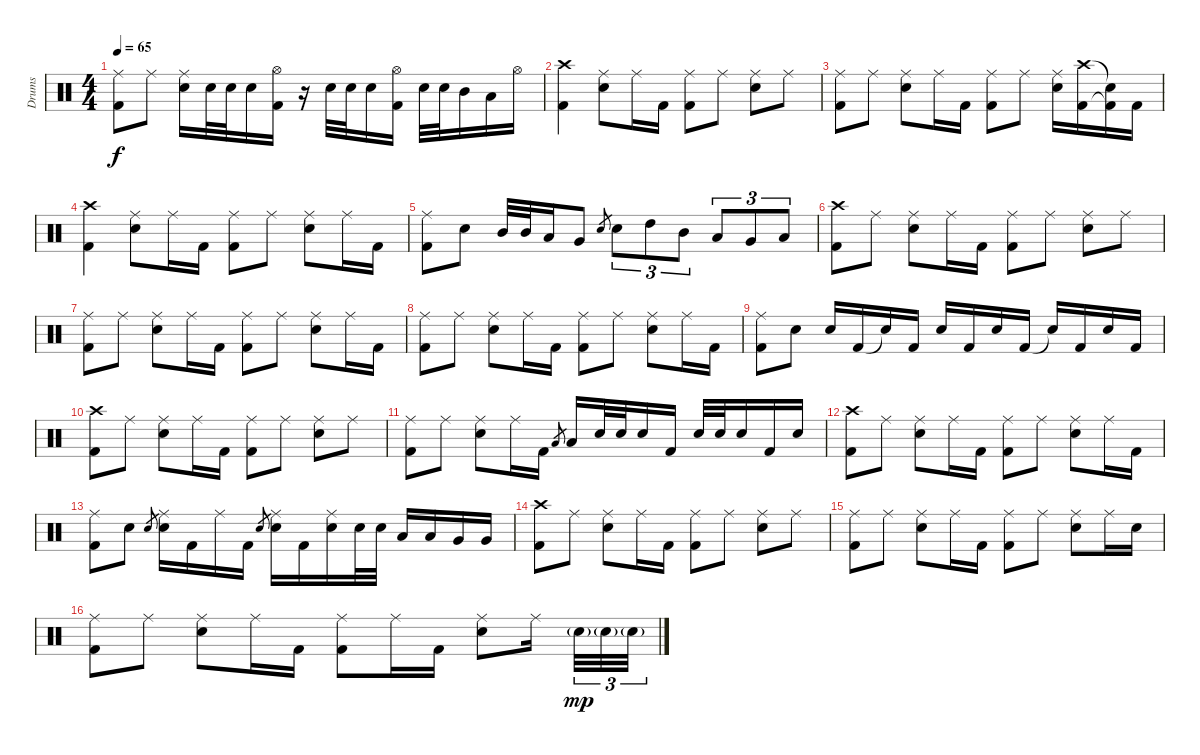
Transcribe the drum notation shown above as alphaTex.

\track ("Drums" "Drums") {instrument percussion}
\staff {score}
\articulation defaults
\ts (4 4)
\tempo 65
\clef neutral
\ks c
("Ride (middle)" "Kick (hit) 2").8{dy f} "Ride (middle)".8 ("Ride (middle)" "Electric Snare (hit)").16 "Electric Snare (hit)".32 "Electric Snare (hit)".32 "Electric Snare (hit)".16 ("Hi-Hat (open)" "Kick (hit) 2").16 r.16 "Electric Snare (hit)".32 "Electric Snare (hit)".32 "Electric Snare (hit)".16 ("Hi-Hat (open)" "Kick (hit) 2").16 "Electric Snare (hit)".32 "Electric Snare (hit)".32 "Mid Tom (hit)".16 "Low Tom (hit)".16 "Hi-Hat (open)".16 |
("Crash high (hit)" "Kick (hit) 2").4 ("Ride (middle)" "Electric Snare (hit)").8 "Ride (middle)".16 "Kick (hit) 2".16 ("Ride (middle)" "Kick (hit) 2").8 "Ride (middle)".8 ("Ride (middle)" "Electric Snare (hit)").8 "Ride (middle)".8 |
("Ride (middle)" "Kick (hit) 2").8 "Ride (middle)".8 ("Ride (middle)" "Electric Snare (hit)").8 "Ride (middle)".16 "Kick (hit) 2".16 ("Ride (middle)" "Kick (hit) 2").8 "Ride (middle)".8 ("Ride (middle)" "Electric Snare (hit)").16 ("Crash high (hit)" "Kick (hit) 2").16 ("Snare (hit)"{t} "Kick (hit) 2"{t}).16 "Kick (hit) 2".16 |
("Crash high (hit)" "Kick (hit) 2").4 ("Ride (middle)" "Electric Snare (hit)").8 "Ride (middle)".16 "Kick (hit) 2".16 ("Ride (middle)" "Kick (hit) 2").8 "Ride (middle)".8 ("Ride (middle)" "Electric Snare (hit)").8 "Ride (middle)".16 "Kick (hit) 2".16 |
("Ride (middle)" "Kick (hit) 2").8 "Electric Snare (hit)".8 "Mid Tom (hit)".32 "Mid Tom (hit)".32 "Low Tom (hit)".16 "Very Low Tom (hit)".8 "Electric Snare (hit)".8{gr} "Electric Snare (hit)".8{tu (3 2)} "High Tom (hit)".8{tu (3 2)} "Mid Tom (hit)".8{tu (3 2)} "Low Tom (hit)".8{tu (3 2)} "Very Low Tom (hit)".8{tu (3 2)} "Low Floor Tom (hit)".8{tu (3 2)} |
("Crash high (hit)" "Kick (hit) 2").8 "Ride (middle)".8 ("Ride (middle)" "Electric Snare (hit)").8 "Ride (middle)".16 "Kick (hit) 2".16 ("Ride (middle)" "Kick (hit) 2").8 "Ride (middle)".8 ("Ride (middle)" "Electric Snare (hit)").8 "Ride (middle)".8 |
("Ride (middle)" "Kick (hit) 2").8 "Ride (middle)".8 ("Ride (middle)" "Electric Snare (hit)").8 "Ride (middle)".16 "Kick (hit) 2".16 ("Ride (middle)" "Kick (hit) 2").8 "Ride (middle)".8 ("Ride (middle)" "Electric Snare (hit)").8 "Ride (middle)".16 "Kick (hit) 2".16 |
("Ride (middle)" "Kick (hit) 2").8 "Ride (middle)".8 ("Ride (middle)" "Electric Snare (hit)").8 "Ride (middle)".16 "Kick (hit) 2".16 ("Ride (middle)" "Kick (hit) 2").8 "Ride (middle)".8 ("Ride (middle)" "Electric Snare (hit)").8 "Ride (middle)".16 "Kick (hit) 2".16 |
("Ride (middle)" "Kick (hit) 2").8 "Electric Snare (hit)".8 "Electric Snare (hit)".16 "Kick (hit) 2".16 "Snare (hit)"{t}.16 "Kick (hit) 2".16 "Electric Snare (hit)".16 "Kick (hit) 2".16 "Electric Snare (hit)".16 "Kick (hit) 2".16 "Snare (hit)"{t}.16 "Kick (hit) 2".16 "Electric Snare (hit)".16 "Kick (hit) 2".16 |
("Crash high (hit)" "Kick (hit) 2").8 "Ride (middle)".8 ("Ride (middle)" "Electric Snare (hit)").8 "Ride (middle)".16 "Kick (hit) 2".16 ("Ride (middle)" "Kick (hit) 2").8 "Ride (middle)".8 ("Ride (middle)" "Electric Snare (hit)").8 "Ride (middle)".8 |
("Ride (middle)" "Kick (hit) 2").8 "Ride (middle)".8 ("Ride (middle)" "Electric Snare (hit)").8 "Ride (middle)".16 "Kick (hit) 2".16 "Low Tom (hit)".8{gr} "Low Tom (hit)".16 "Electric Snare (hit)".32 "Electric Snare (hit)".32 "Electric Snare (hit)".16 "Kick (hit) 2".16 "Electric Snare (hit)".32 "Electric Snare (hit)".32 "Electric Snare (hit)".16 "Kick (hit) 2".16 "Electric Snare (hit)".16 |
("Crash high (hit)" "Kick (hit) 2").8 "Ride (middle)".8 ("Ride (middle)" "Electric Snare (hit)").8 "Ride (middle)".16 "Kick (hit) 2".16 ("Ride (middle)" "Kick (hit) 2").8 "Ride (middle)".8 ("Ride (middle)" "Electric Snare (hit)").8 "Ride (middle)".16 "Kick (hit) 2".16 |
("Ride (middle)" "Kick (hit) 2").8 "Electric Snare (hit)".8 "Electric Snare (hit)".8{gr} ("Ride (middle)" "Electric Snare (hit)").16 "Kick (hit) 2".16 "Ride (middle)".16 "Kick (hit) 2".16 "Electric Snare (hit)".8{gr} ("Ride (middle)" "Electric Snare (hit)").16 "Kick (hit) 2".16 ("Ride (middle)" "Electric Snare (hit)").16 "Electric Snare (hit)".32 "Electric Snare (hit)".32 "Low Tom (hit)".16 "Low Tom (hit)".16 "Very Low Tom (hit)".16 "Very Low Tom (hit)".16 |
("Crash high (hit)" "Kick (hit) 2").8 "Ride (middle)".8 ("Ride (middle)" "Electric Snare (hit)").8 "Ride (middle)".16 "Kick (hit) 2".16 ("Ride (middle)" "Kick (hit) 2").8 "Ride (middle)".8 ("Ride (middle)" "Electric Snare (hit)").8 "Ride (middle)".8 |
("Ride (middle)" "Kick (hit) 2").8 "Ride (middle)".8 ("Ride (middle)" "Electric Snare (hit)").8 "Ride (middle)".16 "Kick (hit) 2".16 ("Ride (middle)" "Kick (hit) 2").8 "Ride (middle)".8 ("Ride (middle)" "Electric Snare (hit)").8 "Ride (middle)".16 "Electric Snare (hit)".16 |
("Ride (middle)" "Kick (hit) 2").8 "Ride (middle)".8 ("Ride (middle)" "Electric Snare (hit)").8 "Ride (middle)".16 "Kick (hit) 2".16 ("Ride (middle)" "Kick (hit) 2").8 "Ride (middle)".16 "Kick (hit) 2".16 ("Ride (middle)" "Electric Snare (hit)").8 "Ride (middle)".16 "Electric Snare (hit)"{g}.32{tu (3 2) dy mp} "Electric Snare (hit)"{g}.32{tu (3 2)} "Electric Snare (hit)"{g}.32{tu (3 2)}
